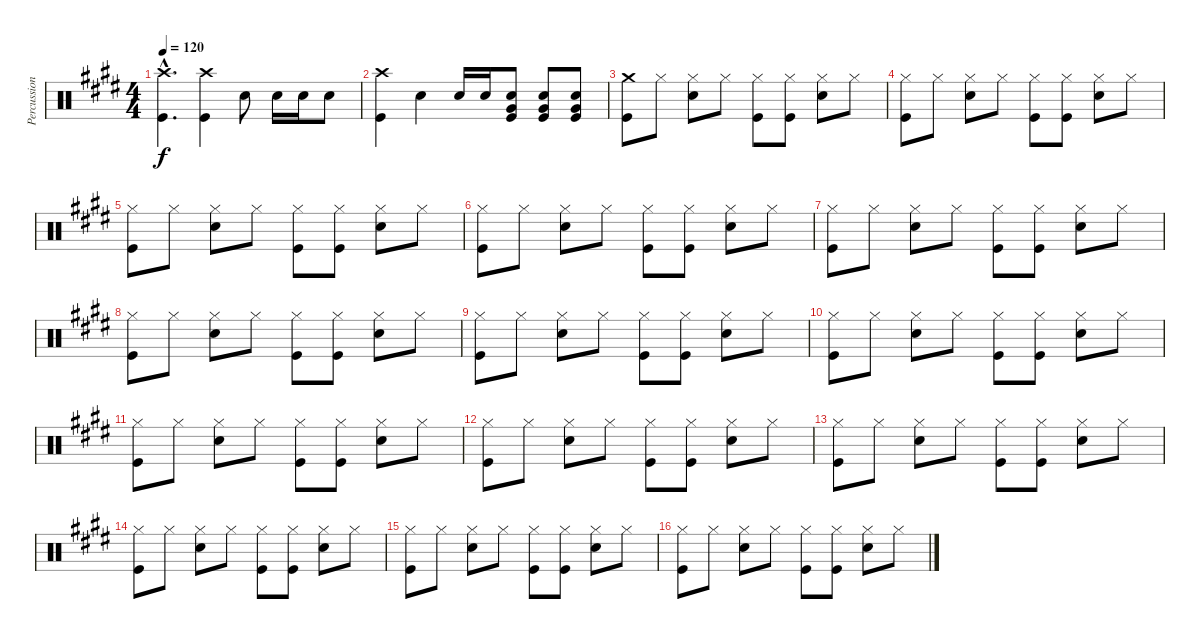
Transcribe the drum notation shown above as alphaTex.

\track ("Percussion" "Percussion") {instrument percussion}
\staff {score}
\articulation defaults
\ts (4 4)
\tempo 120
\clef neutral
\ks e
("Crash high (hit)"{hac} "Kick (hit)"{hac}).4{d dy f} ("Crash high (hit)" "Kick (hit)").4 "Snare (hit) 2".8 "Snare (hit) 2".16 "Snare (hit) 2".16 "Snare (hit) 2".8 |
("Crash high (hit)" "Kick (hit)").4 "Snare (hit) 2".4 "Snare (hit) 2".16 "Snare (hit) 2".16 ("Very Low Tom (hit)" "Snare (hit) 2" "Kick (hit)").8 ("Very Low Tom (hit)" "Snare (hit) 2" "Kick (hit)").8 ("Very Low Tom (hit)" "Snare (hit) 2" "Kick (hit)").8 |
("Crash medium (hit)" "Kick (hit)").8 "Hi-Hat (closed)".8 ("Hi-Hat (closed)" "Snare (hit) 2").8 "Hi-Hat (closed)".8 ("Hi-Hat (closed)" "Kick (hit)").8 ("Hi-Hat (closed)" "Kick (hit)").8 ("Hi-Hat (closed)" "Snare (hit) 2").8 "Hi-Hat (closed)".8 |
("Hi-Hat (closed)" "Kick (hit)").8 "Hi-Hat (closed)".8 ("Hi-Hat (closed)" "Snare (hit) 2").8 "Hi-Hat (closed)".8 ("Hi-Hat (closed)" "Kick (hit)").8 ("Hi-Hat (closed)" "Kick (hit)").8 ("Hi-Hat (closed)" "Snare (hit) 2").8 "Hi-Hat (closed)".8 |
("Hi-Hat (closed)" "Kick (hit)").8 "Hi-Hat (closed)".8 ("Hi-Hat (closed)" "Snare (hit) 2").8 "Hi-Hat (closed)".8 ("Hi-Hat (closed)" "Kick (hit)").8 ("Hi-Hat (closed)" "Kick (hit)").8 ("Hi-Hat (closed)" "Snare (hit) 2").8 "Hi-Hat (closed)".8 |
("Hi-Hat (closed)" "Kick (hit)").8 "Hi-Hat (closed)".8 ("Hi-Hat (closed)" "Snare (hit) 2").8 "Hi-Hat (closed)".8 ("Hi-Hat (closed)" "Kick (hit)").8 ("Hi-Hat (closed)" "Kick (hit)").8 ("Hi-Hat (closed)" "Snare (hit) 2").8 "Hi-Hat (closed)".8 |
("Hi-Hat (closed)" "Kick (hit)").8 "Hi-Hat (closed)".8 ("Hi-Hat (closed)" "Snare (hit) 2").8 "Hi-Hat (closed)".8 ("Hi-Hat (closed)" "Kick (hit)").8 ("Hi-Hat (closed)" "Kick (hit)").8 ("Hi-Hat (closed)" "Snare (hit) 2").8 "Hi-Hat (closed)".8 |
("Hi-Hat (closed)" "Kick (hit)").8 "Hi-Hat (closed)".8 ("Hi-Hat (closed)" "Snare (hit) 2").8 "Hi-Hat (closed)".8 ("Hi-Hat (closed)" "Kick (hit)").8 ("Hi-Hat (closed)" "Kick (hit)").8 ("Hi-Hat (closed)" "Snare (hit) 2").8 "Hi-Hat (closed)".8 |
("Hi-Hat (closed)" "Kick (hit)").8 "Hi-Hat (closed)".8 ("Hi-Hat (closed)" "Snare (hit) 2").8 "Hi-Hat (closed)".8 ("Hi-Hat (closed)" "Kick (hit)").8 ("Hi-Hat (closed)" "Kick (hit)").8 ("Hi-Hat (closed)" "Snare (hit) 2").8 "Hi-Hat (closed)".8 |
("Hi-Hat (closed)" "Kick (hit)").8 "Hi-Hat (closed)".8 ("Hi-Hat (closed)" "Snare (hit) 2").8 "Hi-Hat (closed)".8 ("Hi-Hat (closed)" "Kick (hit)").8 ("Hi-Hat (closed)" "Kick (hit)").8 ("Hi-Hat (closed)" "Snare (hit) 2").8 "Hi-Hat (closed)".8 |
("Hi-Hat (closed)" "Kick (hit)").8 "Hi-Hat (closed)".8 ("Hi-Hat (closed)" "Snare (hit) 2").8 "Hi-Hat (closed)".8 ("Hi-Hat (closed)" "Kick (hit)").8 ("Hi-Hat (closed)" "Kick (hit)").8 ("Hi-Hat (closed)" "Snare (hit) 2").8 "Hi-Hat (closed)".8 |
("Hi-Hat (closed)" "Kick (hit)").8 "Hi-Hat (closed)".8 ("Hi-Hat (closed)" "Snare (hit) 2").8 "Hi-Hat (closed)".8 ("Hi-Hat (closed)" "Kick (hit)").8 ("Hi-Hat (closed)" "Kick (hit)").8 ("Hi-Hat (closed)" "Snare (hit) 2").8 "Hi-Hat (closed)".8 |
("Hi-Hat (closed)" "Kick (hit)").8 "Hi-Hat (closed)".8 ("Hi-Hat (closed)" "Snare (hit) 2").8 "Hi-Hat (closed)".8 ("Hi-Hat (closed)" "Kick (hit)").8 ("Hi-Hat (closed)" "Kick (hit)").8 ("Hi-Hat (closed)" "Snare (hit) 2").8 "Hi-Hat (closed)".8 |
("Hi-Hat (closed)" "Kick (hit)").8 "Hi-Hat (closed)".8 ("Hi-Hat (closed)" "Snare (hit) 2").8 "Hi-Hat (closed)".8 ("Hi-Hat (closed)" "Kick (hit)").8 ("Hi-Hat (closed)" "Kick (hit)").8 ("Hi-Hat (closed)" "Snare (hit) 2").8 "Hi-Hat (closed)".8 |
("Hi-Hat (closed)" "Kick (hit)").8 "Hi-Hat (closed)".8 ("Hi-Hat (closed)" "Snare (hit) 2").8 "Hi-Hat (closed)".8 ("Hi-Hat (closed)" "Kick (hit)").8 ("Hi-Hat (closed)" "Kick (hit)").8 ("Hi-Hat (closed)" "Snare (hit) 2").8 "Hi-Hat (closed)".8 |
("Hi-Hat (closed)" "Kick (hit)").8 "Hi-Hat (closed)".8 ("Hi-Hat (closed)" "Snare (hit) 2").8 "Hi-Hat (closed)".8 ("Hi-Hat (closed)" "Kick (hit)").8 ("Hi-Hat (closed)" "Kick (hit)").8 ("Hi-Hat (closed)" "Snare (hit) 2").8 "Hi-Hat (closed)".8
